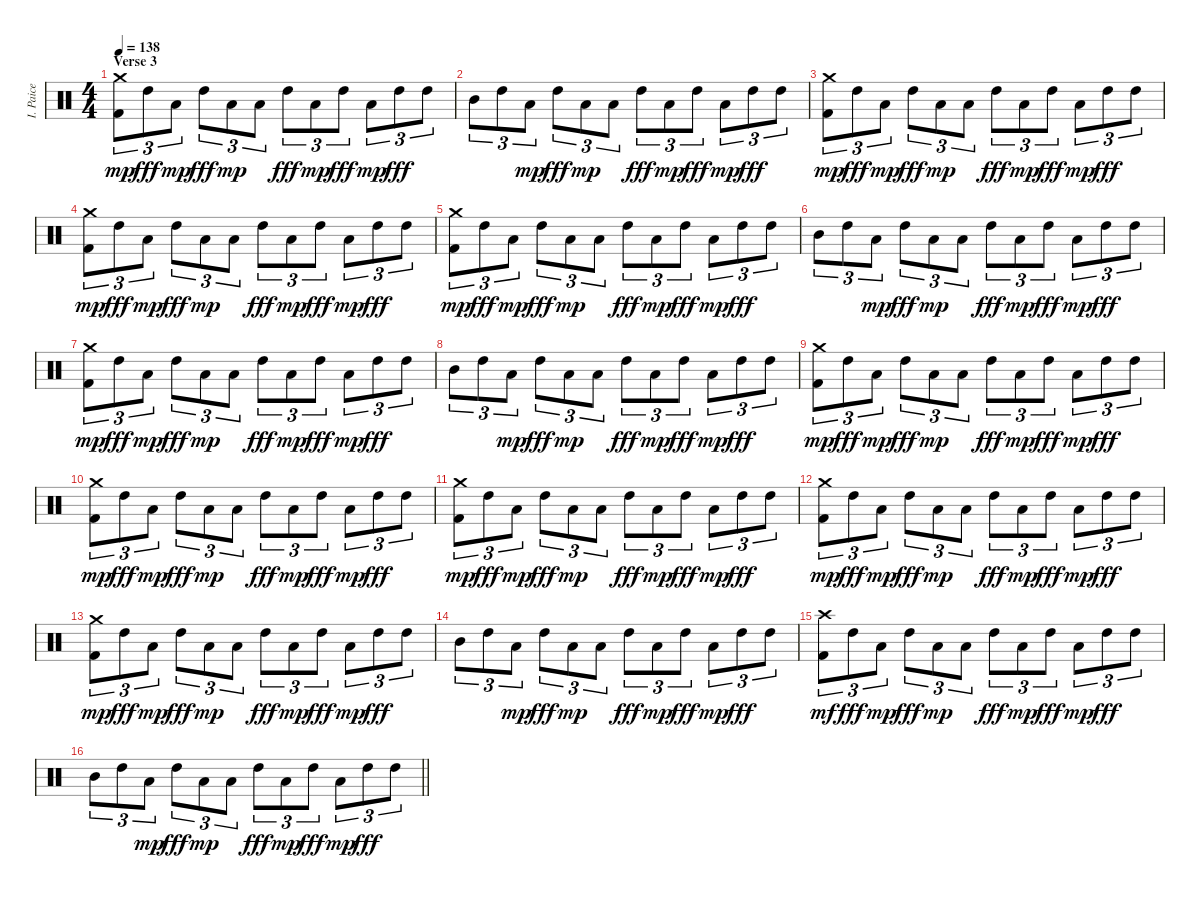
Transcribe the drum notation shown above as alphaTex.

\track ("I. Paice" "I. Paice") {instrument percussion}
\staff {score}
\articulation defaults
\ts (4 4)
\section ("" "Verse 3")
\tempo 138
\clef neutral
\ks c
("Crash medium (hit)" "Kick (hit) 2").8{tu (3 2) dy mp} "High Tom (hit)".8{tu (3 2) dy fff} "Low Tom (hit)".8{tu (3 2) dy mp} "High Tom (hit)".8{tu (3 2) dy fff} "Low Tom (hit)".8{tu (3 2) dy mp} "Low Tom (hit)".8{tu (3 2)} "High Tom (hit)".8{tu (3 2) dy fff} "Low Tom (hit)".8{tu (3 2) dy mp} "High Tom (hit)".8{tu (3 2) dy fff} "Low Tom (hit)".8{tu (3 2) dy mp} "High Tom (hit)".8{tu (3 2) dy fff} "High Tom (hit)".8{tu (3 2)} |
"Mid Tom (hit)".8{tu (3 2)} "High Tom (hit)".8{tu (3 2)} "Low Tom (hit)".8{tu (3 2) dy mp} "High Tom (hit)".8{tu (3 2) dy fff} "Low Tom (hit)".8{tu (3 2) dy mp} "Low Tom (hit)".8{tu (3 2)} "High Tom (hit)".8{tu (3 2) dy fff} "Low Tom (hit)".8{tu (3 2) dy mp} "High Tom (hit)".8{tu (3 2) dy fff} "Low Tom (hit)".8{tu (3 2) dy mp} "High Tom (hit)".8{tu (3 2) dy fff} "High Tom (hit)".8{tu (3 2)} |
("Crash medium (hit)" "Kick (hit) 2").8{tu (3 2) dy mp} "High Tom (hit)".8{tu (3 2) dy fff} "Low Tom (hit)".8{tu (3 2) dy mp} "High Tom (hit)".8{tu (3 2) dy fff} "Low Tom (hit)".8{tu (3 2) dy mp} "Low Tom (hit)".8{tu (3 2)} "High Tom (hit)".8{tu (3 2) dy fff} "Low Tom (hit)".8{tu (3 2) dy mp} "High Tom (hit)".8{tu (3 2) dy fff} "Low Tom (hit)".8{tu (3 2) dy mp} "High Tom (hit)".8{tu (3 2) dy fff} "High Tom (hit)".8{tu (3 2)} |
("Crash medium (hit)" "Kick (hit) 2").8{tu (3 2) dy mp} "High Tom (hit)".8{tu (3 2) dy fff} "Low Tom (hit)".8{tu (3 2) dy mp} "High Tom (hit)".8{tu (3 2) dy fff} "Low Tom (hit)".8{tu (3 2) dy mp} "Low Tom (hit)".8{tu (3 2)} "High Tom (hit)".8{tu (3 2) dy fff} "Low Tom (hit)".8{tu (3 2) dy mp} "High Tom (hit)".8{tu (3 2) dy fff} "Low Tom (hit)".8{tu (3 2) dy mp} "High Tom (hit)".8{tu (3 2) dy fff} "High Tom (hit)".8{tu (3 2)} |
("Crash medium (hit)" "Kick (hit) 2").8{tu (3 2) dy mp} "High Tom (hit)".8{tu (3 2) dy fff} "Low Tom (hit)".8{tu (3 2) dy mp} "High Tom (hit)".8{tu (3 2) dy fff} "Low Tom (hit)".8{tu (3 2) dy mp} "Low Tom (hit)".8{tu (3 2)} "High Tom (hit)".8{tu (3 2) dy fff} "Low Tom (hit)".8{tu (3 2) dy mp} "High Tom (hit)".8{tu (3 2) dy fff} "Low Tom (hit)".8{tu (3 2) dy mp} "High Tom (hit)".8{tu (3 2) dy fff} "High Tom (hit)".8{tu (3 2)} |
"Mid Tom (hit)".8{tu (3 2)} "High Tom (hit)".8{tu (3 2)} "Low Tom (hit)".8{tu (3 2) dy mp} "High Tom (hit)".8{tu (3 2) dy fff} "Low Tom (hit)".8{tu (3 2) dy mp} "Low Tom (hit)".8{tu (3 2)} "High Tom (hit)".8{tu (3 2) dy fff} "Low Tom (hit)".8{tu (3 2) dy mp} "High Tom (hit)".8{tu (3 2) dy fff} "Low Tom (hit)".8{tu (3 2) dy mp} "High Tom (hit)".8{tu (3 2) dy fff} "High Tom (hit)".8{tu (3 2)} |
("Crash medium (hit)" "Kick (hit) 2").8{tu (3 2) dy mp} "High Tom (hit)".8{tu (3 2) dy fff} "Low Tom (hit)".8{tu (3 2) dy mp} "High Tom (hit)".8{tu (3 2) dy fff} "Low Tom (hit)".8{tu (3 2) dy mp} "Low Tom (hit)".8{tu (3 2)} "High Tom (hit)".8{tu (3 2) dy fff} "Low Tom (hit)".8{tu (3 2) dy mp} "High Tom (hit)".8{tu (3 2) dy fff} "Low Tom (hit)".8{tu (3 2) dy mp} "High Tom (hit)".8{tu (3 2) dy fff} "High Tom (hit)".8{tu (3 2)} |
"Mid Tom (hit)".8{tu (3 2)} "High Tom (hit)".8{tu (3 2)} "Low Tom (hit)".8{tu (3 2) dy mp} "High Tom (hit)".8{tu (3 2) dy fff} "Low Tom (hit)".8{tu (3 2) dy mp} "Low Tom (hit)".8{tu (3 2)} "High Tom (hit)".8{tu (3 2) dy fff} "Low Tom (hit)".8{tu (3 2) dy mp} "High Tom (hit)".8{tu (3 2) dy fff} "Low Tom (hit)".8{tu (3 2) dy mp} "High Tom (hit)".8{tu (3 2) dy fff} "High Tom (hit)".8{tu (3 2)} |
("Crash medium (hit)" "Kick (hit) 2").8{tu (3 2) dy mp} "High Tom (hit)".8{tu (3 2) dy fff} "Low Tom (hit)".8{tu (3 2) dy mp} "High Tom (hit)".8{tu (3 2) dy fff} "Low Tom (hit)".8{tu (3 2) dy mp} "Low Tom (hit)".8{tu (3 2)} "High Tom (hit)".8{tu (3 2) dy fff} "Low Tom (hit)".8{tu (3 2) dy mp} "High Tom (hit)".8{tu (3 2) dy fff} "Low Tom (hit)".8{tu (3 2) dy mp} "High Tom (hit)".8{tu (3 2) dy fff} "High Tom (hit)".8{tu (3 2)} |
("Crash medium (hit)" "Kick (hit) 2").8{tu (3 2) dy mp} "High Tom (hit)".8{tu (3 2) dy fff} "Low Tom (hit)".8{tu (3 2) dy mp} "High Tom (hit)".8{tu (3 2) dy fff} "Low Tom (hit)".8{tu (3 2) dy mp} "Low Tom (hit)".8{tu (3 2)} "High Tom (hit)".8{tu (3 2) dy fff} "Low Tom (hit)".8{tu (3 2) dy mp} "High Tom (hit)".8{tu (3 2) dy fff} "Low Tom (hit)".8{tu (3 2) dy mp} "High Tom (hit)".8{tu (3 2) dy fff} "High Tom (hit)".8{tu (3 2)} |
("Crash medium (hit)" "Kick (hit) 2").8{tu (3 2) dy mp} "High Tom (hit)".8{tu (3 2) dy fff} "Low Tom (hit)".8{tu (3 2) dy mp} "High Tom (hit)".8{tu (3 2) dy fff} "Low Tom (hit)".8{tu (3 2) dy mp} "Low Tom (hit)".8{tu (3 2)} "High Tom (hit)".8{tu (3 2) dy fff} "Low Tom (hit)".8{tu (3 2) dy mp} "High Tom (hit)".8{tu (3 2) dy fff} "Low Tom (hit)".8{tu (3 2) dy mp} "High Tom (hit)".8{tu (3 2) dy fff} "High Tom (hit)".8{tu (3 2)} |
("Crash medium (hit)" "Kick (hit) 2").8{tu (3 2) dy mp} "High Tom (hit)".8{tu (3 2) dy fff} "Low Tom (hit)".8{tu (3 2) dy mp} "High Tom (hit)".8{tu (3 2) dy fff} "Low Tom (hit)".8{tu (3 2) dy mp} "Low Tom (hit)".8{tu (3 2)} "High Tom (hit)".8{tu (3 2) dy fff} "Low Tom (hit)".8{tu (3 2) dy mp} "High Tom (hit)".8{tu (3 2) dy fff} "Low Tom (hit)".8{tu (3 2) dy mp} "High Tom (hit)".8{tu (3 2) dy fff} "High Tom (hit)".8{tu (3 2)} |
("Crash medium (hit)" "Kick (hit) 2").8{tu (3 2) dy mp} "High Tom (hit)".8{tu (3 2) dy fff} "Low Tom (hit)".8{tu (3 2) dy mp} "High Tom (hit)".8{tu (3 2) dy fff} "Low Tom (hit)".8{tu (3 2) dy mp} "Low Tom (hit)".8{tu (3 2)} "High Tom (hit)".8{tu (3 2) dy fff} "Low Tom (hit)".8{tu (3 2) dy mp} "High Tom (hit)".8{tu (3 2) dy fff} "Low Tom (hit)".8{tu (3 2) dy mp} "High Tom (hit)".8{tu (3 2) dy fff} "High Tom (hit)".8{tu (3 2)} |
"Mid Tom (hit)".8{tu (3 2)} "High Tom (hit)".8{tu (3 2)} "Low Tom (hit)".8{tu (3 2) dy mp} "High Tom (hit)".8{tu (3 2) dy fff} "Low Tom (hit)".8{tu (3 2) dy mp} "Low Tom (hit)".8{tu (3 2)} "High Tom (hit)".8{tu (3 2) dy fff} "Low Tom (hit)".8{tu (3 2) dy mp} "High Tom (hit)".8{tu (3 2) dy fff} "Low Tom (hit)".8{tu (3 2) dy mp} "High Tom (hit)".8{tu (3 2) dy fff} "High Tom (hit)".8{tu (3 2)} |
("Crash high (hit)" "Kick (hit) 2").8{tu (3 2) dy mf} "High Tom (hit)".8{tu (3 2) dy fff} "Low Tom (hit)".8{tu (3 2) dy mp} "High Tom (hit)".8{tu (3 2) dy fff} "Low Tom (hit)".8{tu (3 2) dy mp} "Low Tom (hit)".8{tu (3 2)} "High Tom (hit)".8{tu (3 2) dy fff} "Low Tom (hit)".8{tu (3 2) dy mp} "High Tom (hit)".8{tu (3 2) dy fff} "Low Tom (hit)".8{tu (3 2) dy mp} "High Tom (hit)".8{tu (3 2) dy fff} "High Tom (hit)".8{tu (3 2)} |
\barLineRight lightlight "Mid Tom (hit)".8{tu (3 2)} "High Tom (hit)".8{tu (3 2)} "Low Tom (hit)".8{tu (3 2) dy mp} "High Tom (hit)".8{tu (3 2) dy fff} "Low Tom (hit)".8{tu (3 2) dy mp} "Low Tom (hit)".8{tu (3 2)} "High Tom (hit)".8{tu (3 2) dy fff} "Low Tom (hit)".8{tu (3 2) dy mp} "High Tom (hit)".8{tu (3 2) dy fff} "Low Tom (hit)".8{tu (3 2) dy mp} "High Tom (hit)".8{tu (3 2) dy fff} "High Tom (hit)".8{tu (3 2)}
